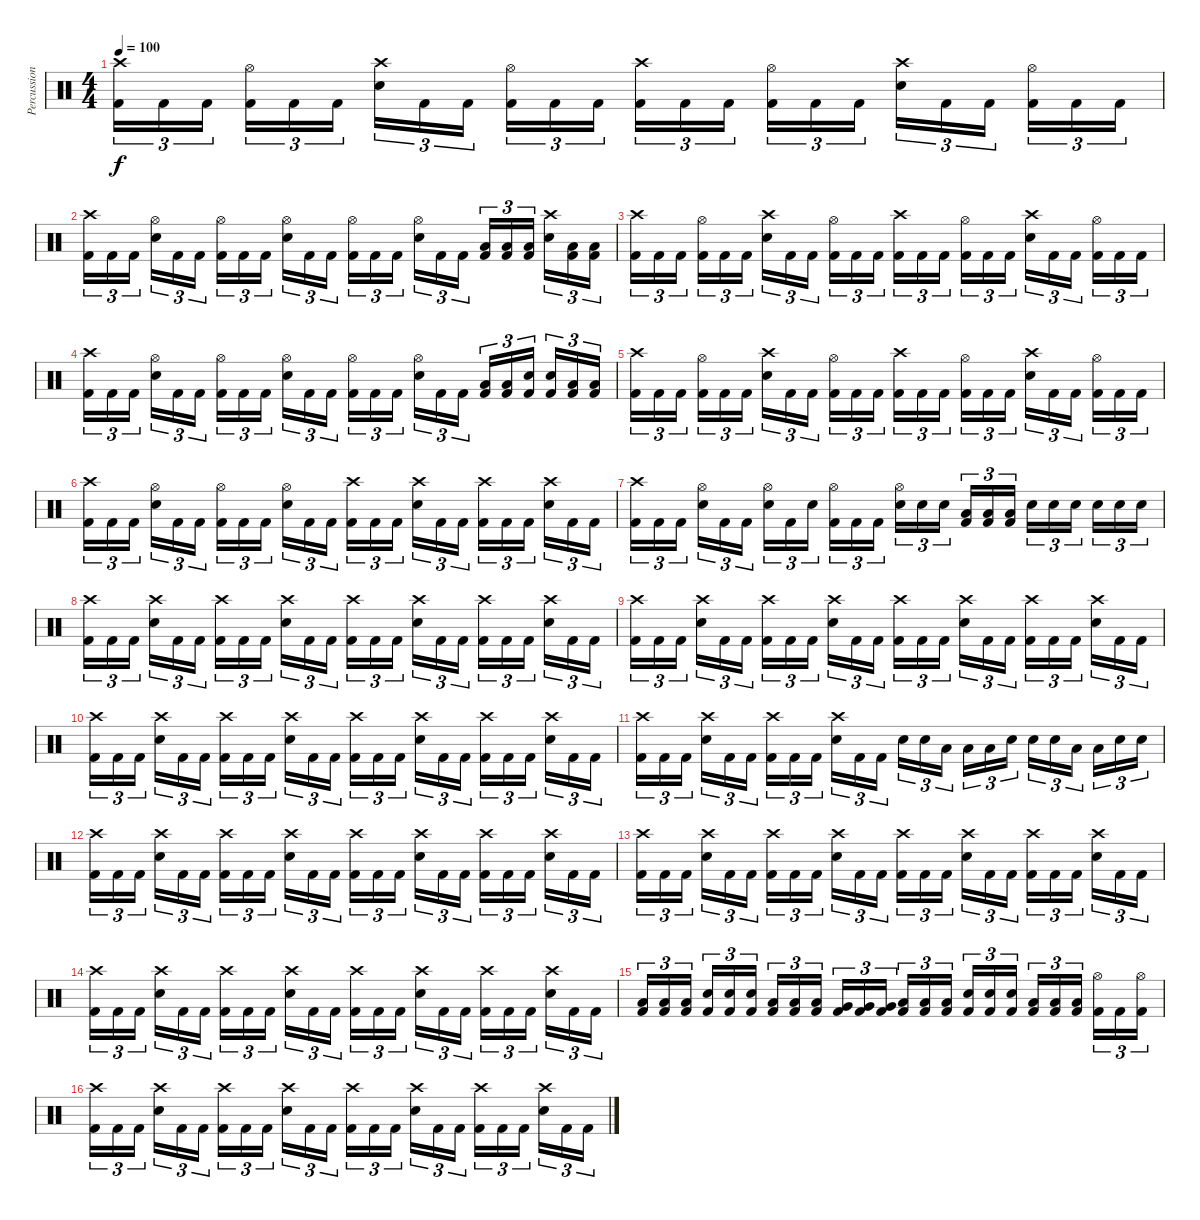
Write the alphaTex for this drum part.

\track ("Percussion" "Percussion") {instrument percussion}
\staff {score}
\articulation defaults
\ts (4 4)
\tempo 100
\clef neutral
\ks c
("Crash high (hit)" "Kick (hit) 2").16{tu (3 2) dy f} "Kick (hit) 2".16{tu (3 2)} "Kick (hit) 2".16{tu (3 2)} ("Hi-Hat (open)" "Kick (hit) 2").16{tu (3 2)} "Kick (hit) 2".16{tu (3 2)} "Kick (hit) 2".16{tu (3 2)} ("Crash high (hit)" "Electric Snare (hit)").16{tu (3 2)} "Kick (hit) 2".16{tu (3 2)} "Kick (hit) 2".16{tu (3 2)} ("Hi-Hat (open)" "Kick (hit) 2").16{tu (3 2)} "Kick (hit) 2".16{tu (3 2)} "Kick (hit) 2".16{tu (3 2)} ("Crash high (hit)" "Kick (hit) 2").16{tu (3 2)} "Kick (hit) 2".16{tu (3 2)} "Kick (hit) 2".16{tu (3 2)} ("Hi-Hat (open)" "Kick (hit) 2").16{tu (3 2)} "Kick (hit) 2".16{tu (3 2)} "Kick (hit) 2".16{tu (3 2)} ("Crash high (hit)" "Electric Snare (hit)").16{tu (3 2)} "Kick (hit) 2".16{tu (3 2)} "Kick (hit) 2".16{tu (3 2)} ("Hi-Hat (open)" "Kick (hit) 2").16{tu (3 2)} "Kick (hit) 2".16{tu (3 2)} "Kick (hit) 2".16{tu (3 2)} |
("Crash high (hit)" "Kick (hit) 2").16{tu (3 2)} "Kick (hit) 2".16{tu (3 2)} "Kick (hit) 2".16{tu (3 2)} ("Hi-Hat (open)" "Electric Snare (hit)").16{tu (3 2)} "Kick (hit) 2".16{tu (3 2)} "Kick (hit) 2".16{tu (3 2)} ("Hi-Hat (open)" "Kick (hit) 2").16{tu (3 2)} "Kick (hit) 2".16{tu (3 2)} "Kick (hit) 2".16{tu (3 2)} ("Hi-Hat (open)" "Electric Snare (hit)").16{tu (3 2)} "Kick (hit) 2".16{tu (3 2)} "Kick (hit) 2".16{tu (3 2)} ("Hi-Hat (open)" "Kick (hit) 2").16{tu (3 2)} "Kick (hit) 2".16{tu (3 2)} "Kick (hit) 2".16{tu (3 2)} ("Hi-Hat (open)" "Electric Snare (hit)").16{tu (3 2)} "Kick (hit) 2".16{tu (3 2)} "Kick (hit) 2".16{tu (3 2)} ("Low Tom (hit)" "Kick (hit) 2").16{tu (3 2)} ("Low Tom (hit)" "Kick (hit) 2").16{tu (3 2)} ("Low Tom (hit)" "Kick (hit) 2").16{tu (3 2)} ("Crash high (hit)" "Electric Snare (hit)").16{tu (3 2)} ("Low Tom (hit)" "Kick (hit) 2").16{tu (3 2)} ("Low Tom (hit)" "Kick (hit) 2").16{tu (3 2)} |
("Crash high (hit)" "Kick (hit) 2").16{tu (3 2)} "Kick (hit) 2".16{tu (3 2)} "Kick (hit) 2".16{tu (3 2)} ("Hi-Hat (open)" "Kick (hit) 2").16{tu (3 2)} "Kick (hit) 2".16{tu (3 2)} "Kick (hit) 2".16{tu (3 2)} ("Crash high (hit)" "Electric Snare (hit)").16{tu (3 2)} "Kick (hit) 2".16{tu (3 2)} "Kick (hit) 2".16{tu (3 2)} ("Hi-Hat (open)" "Kick (hit) 2").16{tu (3 2)} "Kick (hit) 2".16{tu (3 2)} "Kick (hit) 2".16{tu (3 2)} ("Crash high (hit)" "Kick (hit) 2").16{tu (3 2)} "Kick (hit) 2".16{tu (3 2)} "Kick (hit) 2".16{tu (3 2)} ("Hi-Hat (open)" "Kick (hit) 2").16{tu (3 2)} "Kick (hit) 2".16{tu (3 2)} "Kick (hit) 2".16{tu (3 2)} ("Crash high (hit)" "Electric Snare (hit)").16{tu (3 2)} "Kick (hit) 2".16{tu (3 2)} "Kick (hit) 2".16{tu (3 2)} ("Hi-Hat (open)" "Kick (hit) 2").16{tu (3 2)} "Kick (hit) 2".16{tu (3 2)} "Kick (hit) 2".16{tu (3 2)} |
("Crash high (hit)" "Kick (hit) 2").16{tu (3 2)} "Kick (hit) 2".16{tu (3 2)} "Kick (hit) 2".16{tu (3 2)} ("Hi-Hat (open)" "Electric Snare (hit)").16{tu (3 2)} "Kick (hit) 2".16{tu (3 2)} "Kick (hit) 2".16{tu (3 2)} ("Hi-Hat (open)" "Kick (hit) 2").16{tu (3 2)} "Kick (hit) 2".16{tu (3 2)} "Kick (hit) 2".16{tu (3 2)} ("Hi-Hat (open)" "Electric Snare (hit)").16{tu (3 2)} "Kick (hit) 2".16{tu (3 2)} "Kick (hit) 2".16{tu (3 2)} ("Hi-Hat (open)" "Kick (hit) 2").16{tu (3 2)} "Kick (hit) 2".16{tu (3 2)} "Kick (hit) 2".16{tu (3 2)} ("Hi-Hat (open)" "Electric Snare (hit)").16{tu (3 2)} "Kick (hit) 2".16{tu (3 2)} "Kick (hit) 2".16{tu (3 2)} ("Low Tom (hit)" "Kick (hit) 2").16{tu (3 2)} ("Low Tom (hit)" "Kick (hit) 2").16{tu (3 2)} ("Electric Snare (hit)" "Kick (hit) 2").16{tu (3 2)} ("Electric Snare (hit)" "Kick (hit) 2").16{tu (3 2)} ("Low Tom (hit)" "Kick (hit) 2").16{tu (3 2)} ("Low Tom (hit)" "Kick (hit) 2").16{tu (3 2)} |
("Crash high (hit)" "Kick (hit) 2").16{tu (3 2)} "Kick (hit) 2".16{tu (3 2)} "Kick (hit) 2".16{tu (3 2)} ("Hi-Hat (open)" "Kick (hit) 2").16{tu (3 2)} "Kick (hit) 2".16{tu (3 2)} "Kick (hit) 2".16{tu (3 2)} ("Crash high (hit)" "Electric Snare (hit)").16{tu (3 2)} "Kick (hit) 2".16{tu (3 2)} "Kick (hit) 2".16{tu (3 2)} ("Hi-Hat (open)" "Kick (hit) 2").16{tu (3 2)} "Kick (hit) 2".16{tu (3 2)} "Kick (hit) 2".16{tu (3 2)} ("Crash high (hit)" "Kick (hit) 2").16{tu (3 2)} "Kick (hit) 2".16{tu (3 2)} "Kick (hit) 2".16{tu (3 2)} ("Hi-Hat (open)" "Kick (hit) 2").16{tu (3 2)} "Kick (hit) 2".16{tu (3 2)} "Kick (hit) 2".16{tu (3 2)} ("Crash high (hit)" "Electric Snare (hit)").16{tu (3 2)} "Kick (hit) 2".16{tu (3 2)} "Kick (hit) 2".16{tu (3 2)} ("Hi-Hat (open)" "Kick (hit) 2").16{tu (3 2)} "Kick (hit) 2".16{tu (3 2)} "Kick (hit) 2".16{tu (3 2)} |
("Crash high (hit)" "Kick (hit) 2").16{tu (3 2)} "Kick (hit) 2".16{tu (3 2)} "Kick (hit) 2".16{tu (3 2)} ("Hi-Hat (open)" "Electric Snare (hit)").16{tu (3 2)} "Kick (hit) 2".16{tu (3 2)} "Kick (hit) 2".16{tu (3 2)} ("Hi-Hat (open)" "Kick (hit) 2").16{tu (3 2)} "Kick (hit) 2".16{tu (3 2)} "Kick (hit) 2".16{tu (3 2)} ("Hi-Hat (open)" "Electric Snare (hit)").16{tu (3 2)} "Kick (hit) 2".16{tu (3 2)} "Kick (hit) 2".16{tu (3 2)} ("Crash high (hit)" "Kick (hit) 2").16{tu (3 2)} "Kick (hit) 2".16{tu (3 2)} "Kick (hit) 2".16{tu (3 2)} ("Crash high (hit)" "Electric Snare (hit)").16{tu (3 2)} "Kick (hit) 2".16{tu (3 2)} "Kick (hit) 2".16{tu (3 2)} ("Crash high (hit)" "Kick (hit) 2").16{tu (3 2)} "Kick (hit) 2".16{tu (3 2)} "Kick (hit) 2".16{tu (3 2)} ("Crash high (hit)" "Electric Snare (hit)").16{tu (3 2)} "Kick (hit) 2".16{tu (3 2)} "Kick (hit) 2".16{tu (3 2)} |
("Crash high (hit)" "Kick (hit) 2").16{tu (3 2)} "Kick (hit) 2".16{tu (3 2)} "Kick (hit) 2".16{tu (3 2)} ("Hi-Hat (open)" "Electric Snare (hit)").16{tu (3 2)} "Kick (hit) 2".16{tu (3 2)} "Kick (hit) 2".16{tu (3 2)} ("Hi-Hat (open)" "Electric Snare (hit)").16{tu (3 2)} "Kick (hit) 2".16{tu (3 2)} "Electric Snare (hit)".16{tu (3 2)} ("Hi-Hat (open)" "Kick (hit) 2").16{tu (3 2)} "Kick (hit) 2".16{tu (3 2)} "Kick (hit) 2".16{tu (3 2)} ("Hi-Hat (open)" "Electric Snare (hit)").16{tu (3 2)} "Electric Snare (hit)".16{tu (3 2)} "Electric Snare (hit)".16{tu (3 2)} ("Low Tom (hit)" "Kick (hit) 2").16{tu (3 2)} ("Low Tom (hit)" "Kick (hit) 2").16{tu (3 2)} ("Low Tom (hit)" "Kick (hit) 2").16{tu (3 2)} "Electric Snare (hit)".16{tu (3 2)} "Electric Snare (hit)".16{tu (3 2)} "Electric Snare (hit)".16{tu (3 2)} "Electric Snare (hit)".16{tu (3 2)} "Electric Snare (hit)".16{tu (3 2)} "Electric Snare (hit)".16{tu (3 2)} |
("Crash high (hit)" "Kick (hit) 2").16{tu (3 2)} "Kick (hit) 2".16{tu (3 2)} "Kick (hit) 2".16{tu (3 2)} ("Crash high (hit)" "Electric Snare (hit)").16{tu (3 2)} "Kick (hit) 2".16{tu (3 2)} "Kick (hit) 2".16{tu (3 2)} ("Crash high (hit)" "Kick (hit) 2").16{tu (3 2)} "Kick (hit) 2".16{tu (3 2)} "Kick (hit) 2".16{tu (3 2)} ("Crash high (hit)" "Electric Snare (hit)").16{tu (3 2)} "Kick (hit) 2".16{tu (3 2)} "Kick (hit) 2".16{tu (3 2)} ("Crash high (hit)" "Kick (hit) 2").16{tu (3 2)} "Kick (hit) 2".16{tu (3 2)} "Kick (hit) 2".16{tu (3 2)} ("Crash high (hit)" "Electric Snare (hit)").16{tu (3 2)} "Kick (hit) 2".16{tu (3 2)} "Kick (hit) 2".16{tu (3 2)} ("Crash high (hit)" "Kick (hit) 2").16{tu (3 2)} "Kick (hit) 2".16{tu (3 2)} "Kick (hit) 2".16{tu (3 2)} ("Crash high (hit)" "Electric Snare (hit)").16{tu (3 2)} "Kick (hit) 2".16{tu (3 2)} "Kick (hit) 2".16{tu (3 2)} |
("Crash high (hit)" "Kick (hit) 2").16{tu (3 2)} "Kick (hit) 2".16{tu (3 2)} "Kick (hit) 2".16{tu (3 2)} ("Crash high (hit)" "Electric Snare (hit)").16{tu (3 2)} "Kick (hit) 2".16{tu (3 2)} "Kick (hit) 2".16{tu (3 2)} ("Crash high (hit)" "Kick (hit) 2").16{tu (3 2)} "Kick (hit) 2".16{tu (3 2)} "Kick (hit) 2".16{tu (3 2)} ("Crash high (hit)" "Electric Snare (hit)").16{tu (3 2)} "Kick (hit) 2".16{tu (3 2)} "Kick (hit) 2".16{tu (3 2)} ("Crash high (hit)" "Kick (hit) 2").16{tu (3 2)} "Kick (hit) 2".16{tu (3 2)} "Kick (hit) 2".16{tu (3 2)} ("Crash high (hit)" "Electric Snare (hit)").16{tu (3 2)} "Kick (hit) 2".16{tu (3 2)} "Kick (hit) 2".16{tu (3 2)} ("Crash high (hit)" "Kick (hit) 2").16{tu (3 2)} "Kick (hit) 2".16{tu (3 2)} "Kick (hit) 2".16{tu (3 2)} ("Crash high (hit)" "Electric Snare (hit)").16{tu (3 2)} "Kick (hit) 2".16{tu (3 2)} "Kick (hit) 2".16{tu (3 2)} |
("Crash high (hit)" "Kick (hit) 2").16{tu (3 2)} "Kick (hit) 2".16{tu (3 2)} "Kick (hit) 2".16{tu (3 2)} ("Crash high (hit)" "Electric Snare (hit)").16{tu (3 2)} "Kick (hit) 2".16{tu (3 2)} "Kick (hit) 2".16{tu (3 2)} ("Crash high (hit)" "Kick (hit) 2").16{tu (3 2)} "Kick (hit) 2".16{tu (3 2)} "Kick (hit) 2".16{tu (3 2)} ("Crash high (hit)" "Electric Snare (hit)").16{tu (3 2)} "Kick (hit) 2".16{tu (3 2)} "Kick (hit) 2".16{tu (3 2)} ("Crash high (hit)" "Kick (hit) 2").16{tu (3 2)} "Kick (hit) 2".16{tu (3 2)} "Kick (hit) 2".16{tu (3 2)} ("Crash high (hit)" "Electric Snare (hit)").16{tu (3 2)} "Kick (hit) 2".16{tu (3 2)} "Kick (hit) 2".16{tu (3 2)} ("Crash high (hit)" "Kick (hit) 2").16{tu (3 2)} "Kick (hit) 2".16{tu (3 2)} "Kick (hit) 2".16{tu (3 2)} ("Crash high (hit)" "Electric Snare (hit)").16{tu (3 2)} "Kick (hit) 2".16{tu (3 2)} "Kick (hit) 2".16{tu (3 2)} |
("Crash high (hit)" "Kick (hit) 2").16{tu (3 2)} "Kick (hit) 2".16{tu (3 2)} "Kick (hit) 2".16{tu (3 2)} ("Crash high (hit)" "Electric Snare (hit)").16{tu (3 2)} "Kick (hit) 2".16{tu (3 2)} "Kick (hit) 2".16{tu (3 2)} ("Crash high (hit)" "Kick (hit) 2").16{tu (3 2)} "Kick (hit) 2".16{tu (3 2)} "Kick (hit) 2".16{tu (3 2)} ("Crash high (hit)" "Electric Snare (hit)").16{tu (3 2)} "Kick (hit) 2".16{tu (3 2)} "Kick (hit) 2".16{tu (3 2)} "Electric Snare (hit)".16{tu (3 2)} "Electric Snare (hit)".16{tu (3 2)} "Low Tom (hit)".16{tu (3 2)} "Low Tom (hit)".16{tu (3 2)} "Low Tom (hit)".16{tu (3 2)} "Electric Snare (hit)".16{tu (3 2)} "Electric Snare (hit)".16{tu (3 2)} "Electric Snare (hit)".16{tu (3 2)} "Low Tom (hit)".16{tu (3 2)} "Low Tom (hit)".16{tu (3 2)} "Electric Snare (hit)".16{tu (3 2)} "Electric Snare (hit)".16{tu (3 2)} |
("Crash high (hit)" "Kick (hit) 2").16{tu (3 2)} "Kick (hit) 2".16{tu (3 2)} "Kick (hit) 2".16{tu (3 2)} ("Crash high (hit)" "Electric Snare (hit)").16{tu (3 2)} "Kick (hit) 2".16{tu (3 2)} "Kick (hit) 2".16{tu (3 2)} ("Crash high (hit)" "Kick (hit) 2").16{tu (3 2)} "Kick (hit) 2".16{tu (3 2)} "Kick (hit) 2".16{tu (3 2)} ("Crash high (hit)" "Electric Snare (hit)").16{tu (3 2)} "Kick (hit) 2".16{tu (3 2)} "Kick (hit) 2".16{tu (3 2)} ("Crash high (hit)" "Kick (hit) 2").16{tu (3 2)} "Kick (hit) 2".16{tu (3 2)} "Kick (hit) 2".16{tu (3 2)} ("Crash high (hit)" "Electric Snare (hit)").16{tu (3 2)} "Kick (hit) 2".16{tu (3 2)} "Kick (hit) 2".16{tu (3 2)} ("Crash high (hit)" "Kick (hit) 2").16{tu (3 2)} "Kick (hit) 2".16{tu (3 2)} "Kick (hit) 2".16{tu (3 2)} ("Crash high (hit)" "Electric Snare (hit)").16{tu (3 2)} "Kick (hit) 2".16{tu (3 2)} "Kick (hit) 2".16{tu (3 2)} |
("Crash high (hit)" "Kick (hit) 2").16{tu (3 2)} "Kick (hit) 2".16{tu (3 2)} "Kick (hit) 2".16{tu (3 2)} ("Crash high (hit)" "Electric Snare (hit)").16{tu (3 2)} "Kick (hit) 2".16{tu (3 2)} "Kick (hit) 2".16{tu (3 2)} ("Crash high (hit)" "Kick (hit) 2").16{tu (3 2)} "Kick (hit) 2".16{tu (3 2)} "Kick (hit) 2".16{tu (3 2)} ("Crash high (hit)" "Electric Snare (hit)").16{tu (3 2)} "Kick (hit) 2".16{tu (3 2)} "Kick (hit) 2".16{tu (3 2)} ("Crash high (hit)" "Kick (hit) 2").16{tu (3 2)} "Kick (hit) 2".16{tu (3 2)} "Kick (hit) 2".16{tu (3 2)} ("Crash high (hit)" "Electric Snare (hit)").16{tu (3 2)} "Kick (hit) 2".16{tu (3 2)} "Kick (hit) 2".16{tu (3 2)} ("Crash high (hit)" "Kick (hit) 2").16{tu (3 2)} "Kick (hit) 2".16{tu (3 2)} "Kick (hit) 2".16{tu (3 2)} ("Crash high (hit)" "Electric Snare (hit)").16{tu (3 2)} "Kick (hit) 2".16{tu (3 2)} "Kick (hit) 2".16{tu (3 2)} |
("Crash high (hit)" "Kick (hit) 2").16{tu (3 2)} "Kick (hit) 2".16{tu (3 2)} "Kick (hit) 2".16{tu (3 2)} ("Crash high (hit)" "Electric Snare (hit)").16{tu (3 2)} "Kick (hit) 2".16{tu (3 2)} "Kick (hit) 2".16{tu (3 2)} ("Crash high (hit)" "Kick (hit) 2").16{tu (3 2)} "Kick (hit) 2".16{tu (3 2)} "Kick (hit) 2".16{tu (3 2)} ("Crash high (hit)" "Electric Snare (hit)").16{tu (3 2)} "Kick (hit) 2".16{tu (3 2)} "Kick (hit) 2".16{tu (3 2)} ("Crash high (hit)" "Kick (hit) 2").16{tu (3 2)} "Kick (hit) 2".16{tu (3 2)} "Kick (hit) 2".16{tu (3 2)} ("Crash high (hit)" "Electric Snare (hit)").16{tu (3 2)} "Kick (hit) 2".16{tu (3 2)} "Kick (hit) 2".16{tu (3 2)} ("Crash high (hit)" "Kick (hit) 2").16{tu (3 2)} "Kick (hit) 2".16{tu (3 2)} "Kick (hit) 2".16{tu (3 2)} ("Crash high (hit)" "Electric Snare (hit)").16{tu (3 2)} "Kick (hit) 2".16{tu (3 2)} "Kick (hit) 2".16{tu (3 2)} |
("Low Tom (hit)" "Kick (hit) 2").16{tu (3 2)} ("Low Tom (hit)" "Kick (hit) 2").16{tu (3 2)} ("Low Tom (hit)" "Kick (hit) 2").16{tu (3 2)} ("Electric Snare (hit)" "Kick (hit) 2").16{tu (3 2)} ("Electric Snare (hit)" "Kick (hit) 2").16{tu (3 2)} ("Electric Snare (hit)" "Kick (hit) 2").16{tu (3 2)} ("Low Tom (hit)" "Kick (hit) 2").16{tu (3 2)} ("Low Tom (hit)" "Kick (hit) 2").16{tu (3 2)} ("Low Tom (hit)" "Kick (hit) 2").16{tu (3 2)} ("Very Low Tom (hit)" "Kick (hit) 2").16{tu (3 2)} ("Very Low Tom (hit)" "Kick (hit) 2").16{tu (3 2)} ("Very Low Tom (hit)" "Kick (hit) 2").16{tu (3 2)} ("Low Tom (hit)" "Kick (hit) 2").16{tu (3 2)} ("Low Tom (hit)" "Kick (hit) 2").16{tu (3 2)} ("Low Tom (hit)" "Kick (hit) 2").16{tu (3 2)} ("Electric Snare (hit)" "Kick (hit) 2").16{tu (3 2)} ("Electric Snare (hit)" "Kick (hit) 2").16{tu (3 2)} ("Electric Snare (hit)" "Kick (hit) 2").16{tu (3 2)} ("Low Tom (hit)" "Kick (hit) 2").16{tu (3 2)} ("Low Tom (hit)" "Kick (hit) 2").16{tu (3 2)} ("Low Tom (hit)" "Kick (hit) 2").16{tu (3 2)} ("Hi-Hat (open)" "Kick (hit) 2").16{tu (3 2)} "Kick (hit) 2".16{tu (3 2)} ("Hi-Hat (open)" "Kick (hit) 2").16{tu (3 2)} |
("Crash high (hit)" "Kick (hit) 2").16{tu (3 2)} "Kick (hit) 2".16{tu (3 2)} "Kick (hit) 2".16{tu (3 2)} ("Crash high (hit)" "Electric Snare (hit)").16{tu (3 2)} "Kick (hit) 2".16{tu (3 2)} "Kick (hit) 2".16{tu (3 2)} ("Crash high (hit)" "Kick (hit) 2").16{tu (3 2)} "Kick (hit) 2".16{tu (3 2)} "Kick (hit) 2".16{tu (3 2)} ("Crash high (hit)" "Electric Snare (hit)").16{tu (3 2)} "Kick (hit) 2".16{tu (3 2)} "Kick (hit) 2".16{tu (3 2)} ("Crash high (hit)" "Kick (hit) 2").16{tu (3 2)} "Kick (hit) 2".16{tu (3 2)} "Kick (hit) 2".16{tu (3 2)} ("Crash high (hit)" "Electric Snare (hit)").16{tu (3 2)} "Kick (hit) 2".16{tu (3 2)} "Kick (hit) 2".16{tu (3 2)} ("Crash high (hit)" "Kick (hit) 2").16{tu (3 2)} "Kick (hit) 2".16{tu (3 2)} "Kick (hit) 2".16{tu (3 2)} ("Crash high (hit)" "Electric Snare (hit)").16{tu (3 2)} "Kick (hit) 2".16{tu (3 2)} "Kick (hit) 2".16{tu (3 2)}
